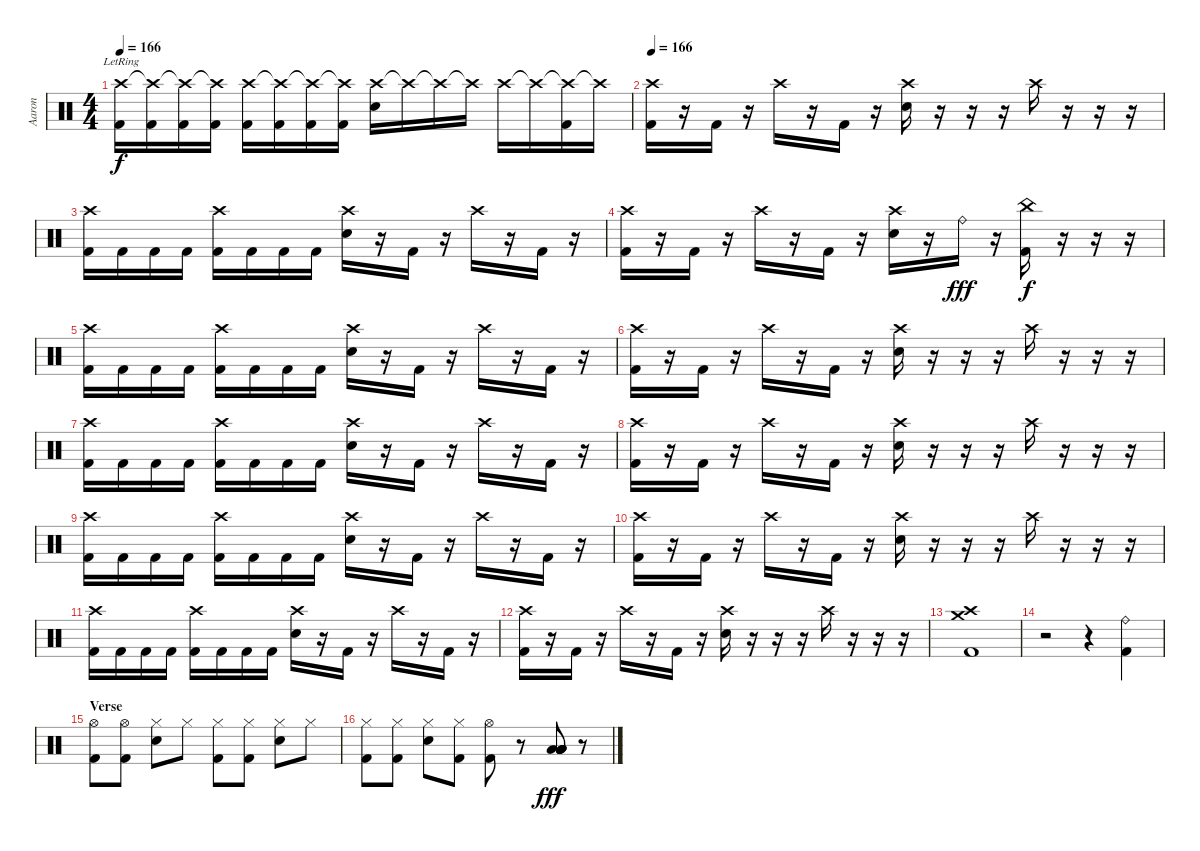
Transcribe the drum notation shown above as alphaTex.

\track ("Aaron" "Aaron") {instrument percussion}
\staff {score}
\articulation defaults
\ts (4 4)
\tempo 166
\clef neutral
\ks c
("Crash high (hit)"{lr} "Kick (hit) 2").16{dy f} ("Crash high (hit)"{t} "Kick (hit) 2").16 ("Crash high (hit)"{t} "Kick (hit) 2").16 ("Crash high (hit)"{t} "Kick (hit) 2").16 ("Crash high (hit)" "Kick (hit) 2").16 ("Crash high (hit)"{t} "Kick (hit) 2").16 ("Crash high (hit)"{t} "Kick (hit) 2").16 ("Crash high (hit)"{t} "Kick (hit) 2").16 ("Crash high (hit)" "Snare (hit) 2").16 "Crash high (hit)"{t}.16 "Crash high (hit)"{t}.16 "Crash high (hit)"{t}.16 "Crash high (hit)".16 "Crash high (hit)"{t}.16 ("Crash high (hit)"{t} "Kick (hit) 2").16 "Crash high (hit)"{t}.16 |
\tempo 166
("Crash high (hit)" "Kick (hit) 2").16 r.16 "Kick (hit) 2".16 r.16 "Crash high (hit)".16 r.16 "Kick (hit) 2".16 r.16 ("Crash high (hit)" "Snare (hit) 2").16 r.16 r.16 r.16 "Crash high (hit)".16 r.16 r.16 r.16 |
("Crash high (hit)" "Kick (hit) 2").16 "Kick (hit) 2".16 "Kick (hit) 2".16 "Kick (hit) 2".16 ("Crash high (hit)" "Kick (hit) 2").16 "Kick (hit) 2".16 "Kick (hit) 2".16 "Kick (hit) 2".16 ("Crash high (hit)" "Snare (hit) 2").16 r.16 "Kick (hit) 2".16 r.16 "Crash high (hit)".16 r.16 "Kick (hit) 2".16 r.16 |
("Crash high (hit)" "Kick (hit) 2").16 r.16 "Kick (hit) 2".16 r.16 "Crash high (hit)".16 r.16 "Kick (hit) 2".16 r.16 ("Crash high (hit)" "Snare (hit) 2").16 r.16 "Ride (bell)".16{dy fff} r.16 ("China (hit)" "Kick (hit) 2").16{dy f} r.16 r.16 r.16 |
("Crash high (hit)" "Kick (hit) 2").16 "Kick (hit) 2".16 "Kick (hit) 2".16 "Kick (hit) 2".16 ("Crash high (hit)" "Kick (hit) 2").16 "Kick (hit) 2".16 "Kick (hit) 2".16 "Kick (hit) 2".16 ("Crash high (hit)" "Snare (hit) 2").16 r.16 "Kick (hit) 2".16 r.16 "Crash high (hit)".16 r.16 "Kick (hit) 2".16 r.16 |
("Crash high (hit)" "Kick (hit) 2").16 r.16 "Kick (hit) 2".16 r.16 "Crash high (hit)".16 r.16 "Kick (hit) 2".16 r.16 ("Crash high (hit)" "Snare (hit) 2").16 r.16 r.16 r.16 "Crash high (hit)".16 r.16 r.16 r.16 |
("Crash high (hit)" "Kick (hit) 2").16 "Kick (hit) 2".16 "Kick (hit) 2".16 "Kick (hit) 2".16 ("Crash high (hit)" "Kick (hit) 2").16 "Kick (hit) 2".16 "Kick (hit) 2".16 "Kick (hit) 2".16 ("Crash high (hit)" "Snare (hit) 2").16 r.16 "Kick (hit) 2".16 r.16 "Crash high (hit)".16 r.16 "Kick (hit) 2".16 r.16 |
("Crash high (hit)" "Kick (hit) 2").16 r.16 "Kick (hit) 2".16 r.16 "Crash high (hit)".16 r.16 "Kick (hit) 2".16 r.16 ("Crash high (hit)" "Snare (hit) 2").16 r.16 r.16 r.16 "Crash high (hit)".16 r.16 r.16 r.16 |
("Crash high (hit)" "Kick (hit) 2").16 "Kick (hit) 2".16 "Kick (hit) 2".16 "Kick (hit) 2".16 ("Crash high (hit)" "Kick (hit) 2").16 "Kick (hit) 2".16 "Kick (hit) 2".16 "Kick (hit) 2".16 ("Crash high (hit)" "Snare (hit) 2").16 r.16 "Kick (hit) 2".16 r.16 "Crash high (hit)".16 r.16 "Kick (hit) 2".16 r.16 |
("Crash high (hit)" "Kick (hit) 2").16 r.16 "Kick (hit) 2".16 r.16 "Crash high (hit)".16 r.16 "Kick (hit) 2".16 r.16 ("Crash high (hit)" "Snare (hit) 2").16 r.16 r.16 r.16 "Crash high (hit)".16 r.16 r.16 r.16 |
("Crash high (hit)" "Kick (hit) 2").16 "Kick (hit) 2".16 "Kick (hit) 2".16 "Kick (hit) 2".16 ("Crash high (hit)" "Kick (hit) 2").16 "Kick (hit) 2".16 "Kick (hit) 2".16 "Kick (hit) 2".16 ("Crash high (hit)" "Snare (hit) 2").16 r.16 "Kick (hit) 2".16 r.16 "Crash high (hit)".16 r.16 "Kick (hit) 2".16 r.16 |
("Crash high (hit)" "Kick (hit) 2").16 r.16 "Kick (hit) 2".16 r.16 "Crash high (hit)".16 r.16 "Kick (hit) 2".16 r.16 ("Crash high (hit)" "Snare (hit) 2").16 r.16 r.16 r.16 "Crash high (hit)".16 r.16 r.16 r.16 |
("Crash high (hit)" "Crash medium (hit)" "Kick (hit) 2").1 |
r.2 r.4 ("Ride (bell)" "Kick (hit) 2").4 |
\section ("" "Verse")
("Hi-Hat (open)" "Kick (hit) 2").8 ("Hi-Hat (open)" "Kick (hit) 2").8 ("Hi-Hat (closed)" "Snare (hit) 2").8 "Hi-Hat (closed)".8 ("Hi-Hat (closed)" "Kick (hit) 2").8 ("Hi-Hat (closed)" "Kick (hit) 2").8 ("Hi-Hat (closed)" "Snare (hit) 2").8 "Hi-Hat (closed)".8 |
("Hi-Hat (closed)" "Kick (hit) 2").8 ("Hi-Hat (closed)" "Kick (hit) 2").8 ("Hi-Hat (closed)" "Snare (hit) 2").8 ("Hi-Hat (closed)" "Kick (hit) 2").8 ("Hi-Hat (open)" "Kick (hit) 2").8 r.8 ("Low Floor Tom (hit)" "Low Floor Tom (hit)" "Low Floor Tom (hit)" "Low Floor Tom (hit)" "Low Floor Tom (hit)").8{dy fff} r.8
